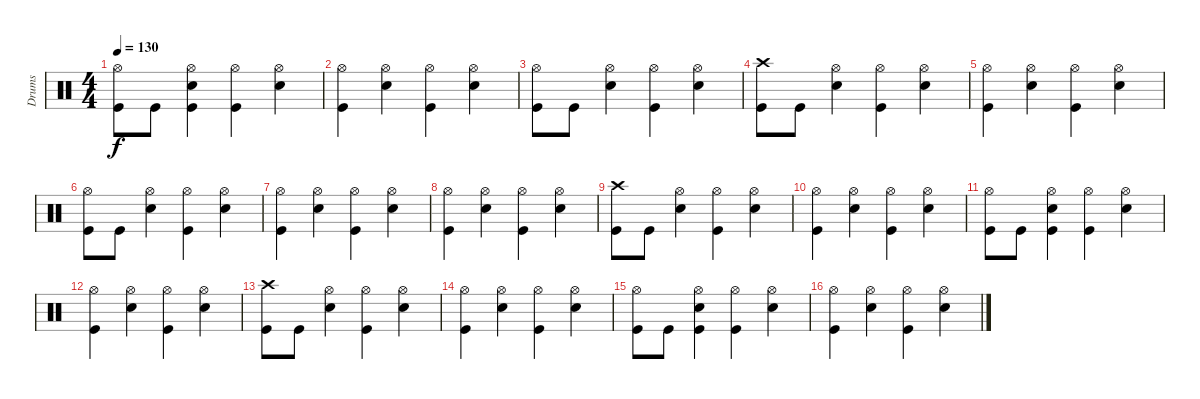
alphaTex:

\track ("Drums" "Drums") {instrument percussion}
\staff {score}
\articulation defaults
\ts (4 4)
\tempo 130
\clef neutral
\ks c
("Hi-Hat (open)" "Kick (hit)").8{dy f} "Kick (hit)".8 ("Hi-Hat (open)" "Snare (hit) 2" "Kick (hit)").4 ("Hi-Hat (open)" "Kick (hit)").4 ("Hi-Hat (open)" "Snare (hit) 2").4 |
("Hi-Hat (open)" "Kick (hit)").4 ("Hi-Hat (open)" "Snare (hit) 2").4 ("Hi-Hat (open)" "Kick (hit)").4 ("Hi-Hat (open)" "Snare (hit) 2").4 |
("Hi-Hat (open)" "Kick (hit)").8 "Kick (hit)".8 ("Hi-Hat (open)" "Snare (hit) 2").4 ("Hi-Hat (open)" "Kick (hit)").4 ("Hi-Hat (open)" "Snare (hit) 2").4 |
("Crash high (hit)" "Kick (hit)").8 "Kick (hit)".8 ("Hi-Hat (open)" "Snare (hit) 2").4 ("Hi-Hat (open)" "Kick (hit)").4 ("Hi-Hat (open)" "Snare (hit) 2").4 |
("Hi-Hat (open)" "Kick (hit)").4 ("Hi-Hat (open)" "Snare (hit) 2").4 ("Hi-Hat (open)" "Kick (hit)").4 ("Hi-Hat (open)" "Snare (hit) 2").4 |
("Hi-Hat (open)" "Kick (hit)").8 "Kick (hit)".8 ("Hi-Hat (open)" "Snare (hit) 2").4 ("Hi-Hat (open)" "Kick (hit)").4 ("Hi-Hat (open)" "Snare (hit) 2").4 |
("Hi-Hat (open)" "Kick (hit)").4 ("Hi-Hat (open)" "Snare (hit) 2").4 ("Hi-Hat (open)" "Kick (hit)").4 ("Hi-Hat (open)" "Snare (hit) 2").4 |
("Hi-Hat (open)" "Kick (hit)").4 ("Hi-Hat (open)" "Snare (hit) 2").4 ("Hi-Hat (open)" "Kick (hit)").4 ("Hi-Hat (open)" "Snare (hit) 2").4 |
("Crash high (hit)" "Kick (hit)").8 "Kick (hit)".8 ("Hi-Hat (open)" "Snare (hit) 2").4 ("Hi-Hat (open)" "Kick (hit)").4 ("Hi-Hat (open)" "Snare (hit) 2").4 |
("Hi-Hat (open)" "Kick (hit)").4 ("Hi-Hat (open)" "Snare (hit) 2").4 ("Hi-Hat (open)" "Kick (hit)").4 ("Hi-Hat (open)" "Snare (hit) 2").4 |
("Hi-Hat (open)" "Kick (hit)").8 "Kick (hit)".8 ("Hi-Hat (open)" "Snare (hit) 2" "Kick (hit)").4 ("Hi-Hat (open)" "Kick (hit)").4 ("Hi-Hat (open)" "Snare (hit) 2").4 |
("Hi-Hat (open)" "Kick (hit)").4 ("Hi-Hat (open)" "Snare (hit) 2").4 ("Hi-Hat (open)" "Kick (hit)").4 ("Hi-Hat (open)" "Snare (hit) 2").4 |
("Crash high (hit)" "Kick (hit)").8 "Kick (hit)".8 ("Hi-Hat (open)" "Snare (hit) 2").4 ("Hi-Hat (open)" "Kick (hit)").4 ("Hi-Hat (open)" "Snare (hit) 2").4 |
("Hi-Hat (open)" "Kick (hit)").4 ("Hi-Hat (open)" "Snare (hit) 2").4 ("Hi-Hat (open)" "Kick (hit)").4 ("Hi-Hat (open)" "Snare (hit) 2").4 |
("Hi-Hat (open)" "Kick (hit)").8 "Kick (hit)".8 ("Hi-Hat (open)" "Snare (hit) 2" "Kick (hit)").4 ("Hi-Hat (open)" "Kick (hit)").4 ("Hi-Hat (open)" "Snare (hit) 2").4 |
("Hi-Hat (open)" "Kick (hit)").4 ("Hi-Hat (open)" "Snare (hit) 2").4 ("Hi-Hat (open)" "Kick (hit)").4 ("Hi-Hat (open)" "Snare (hit) 2").4
